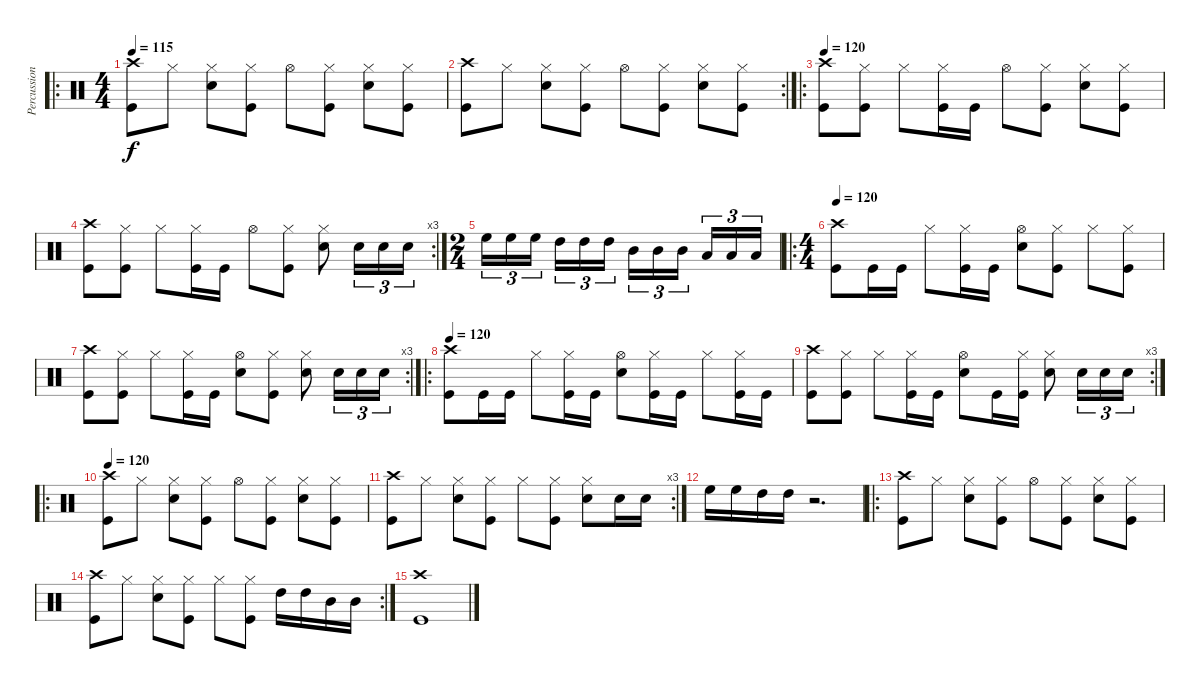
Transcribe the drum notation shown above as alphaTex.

\track ("Percussion" "Percussion") {instrument percussion}
\staff {score}
\articulation defaults
\ro
\ts (4 4)
\tempo 115
\clef neutral
\ks c
("Crash high (hit)" "Kick (hit)").8{dy f} "Hi-Hat (closed)".8 ("Hi-Hat (closed)" "Snare (hit) 2").8 ("Hi-Hat (closed)" "Kick (hit)").8 "Hi-Hat (open)".8 ("Hi-Hat (closed)" "Kick (hit)").8 ("Hi-Hat (closed)" "Snare (hit) 2").8 ("Hi-Hat (closed)" "Kick (hit)").8 |
\rc 2
("Crash high (hit)" "Kick (hit)").8 "Hi-Hat (closed)".8 ("Hi-Hat (closed)" "Snare (hit) 2").8 ("Hi-Hat (closed)" "Kick (hit)").8 "Hi-Hat (open)".8 ("Hi-Hat (closed)" "Kick (hit)").8 ("Hi-Hat (closed)" "Snare (hit) 2").8 ("Hi-Hat (closed)" "Kick (hit)").8 |
\ro
\tempo 120
("Crash high (hit)" "Kick (hit)").8{volume 13} ("Hi-Hat (closed)" "Kick (hit)").8 "Hi-Hat (closed)".8 ("Hi-Hat (closed)" "Kick (hit)").16 "Kick (hit)".16 "Hi-Hat (open)".8 ("Hi-Hat (closed)" "Kick (hit)").8 ("Hi-Hat (closed)" "Snare (hit) 2").8 ("Hi-Hat (closed)" "Kick (hit)").8 |
\rc 3
("Crash high (hit)" "Kick (hit)").8 ("Hi-Hat (closed)" "Kick (hit)").8 "Hi-Hat (closed)".8 ("Hi-Hat (closed)" "Kick (hit)").16 "Kick (hit)".16 "Hi-Hat (open)".8 ("Hi-Hat (closed)" "Kick (hit)").8 ("Hi-Hat (closed)" "Snare (hit) 2").8 "Snare (hit) 2".16{tu (3 2)} "Snare (hit) 2".16{tu (3 2)} "Snare (hit) 2".16{tu (3 2)} |
\ts (2 4)
"High Floor Tom (hit)".16{tu (3 2)} "High Floor Tom (hit)".16{tu (3 2)} "High Floor Tom (hit)".16{tu (3 2)} "High Tom (hit)".16{tu (3 2)} "High Tom (hit)".16{tu (3 2)} "High Tom (hit)".16{tu (3 2)} "Mid Tom (hit)".16{tu (3 2)} "Mid Tom (hit)".16{tu (3 2)} "Mid Tom (hit)".16{tu (3 2)} "Low Tom (hit)".16{tu (3 2)} "Low Tom (hit)".16{tu (3 2)} "Low Tom (hit)".16{tu (3 2)} |
\ro
\ts (4 4)
\tempo 120
("Crash high (hit)" "Kick (hit)").8 "Kick (hit)".16 "Kick (hit)".16 "Hi-Hat (closed)".8 ("Hi-Hat (closed)" "Kick (hit)").16 "Kick (hit)".16 ("Hi-Hat (open)" "Snare (hit) 2").8 ("Hi-Hat (closed)" "Kick (hit)").8 "Hi-Hat (closed)".8 ("Hi-Hat (closed)" "Kick (hit)").8 |
\rc 3
("Crash high (hit)" "Kick (hit)").8 ("Hi-Hat (closed)" "Kick (hit)").8 "Hi-Hat (closed)".8 ("Hi-Hat (closed)" "Kick (hit)").16 "Kick (hit)".16 ("Hi-Hat (open)" "Snare (hit) 2").8 ("Hi-Hat (closed)" "Kick (hit)").8 ("Hi-Hat (closed)" "Snare (hit) 2").8 "Snare (hit) 2".16{tu (3 2)} "Snare (hit) 2".16{tu (3 2)} "Snare (hit) 2".16{tu (3 2)} |
\ro
\tempo 120
("Crash high (hit)" "Kick (hit)").8 "Kick (hit)".16 "Kick (hit)".16 "Hi-Hat (closed)".8 ("Hi-Hat (closed)" "Kick (hit)").16 "Kick (hit)".16 ("Hi-Hat (open)" "Snare (hit) 2").8 ("Hi-Hat (closed)" "Kick (hit)").16 "Kick (hit)".16 "Hi-Hat (closed)".8 ("Hi-Hat (closed)" "Kick (hit)").16 "Kick (hit)".16 |
\rc 3
("Crash high (hit)" "Kick (hit)").8 ("Hi-Hat (closed)" "Kick (hit)").8 "Hi-Hat (closed)".8 ("Hi-Hat (closed)" "Kick (hit)").16 "Kick (hit)".16 ("Hi-Hat (open)" "Snare (hit) 2").8 "Kick (hit)".16 ("Hi-Hat (closed)" "Kick (hit)").16 ("Hi-Hat (closed)" "Snare (hit) 2").8 "Snare (hit) 2".16{tu (3 2)} "Snare (hit) 2".16{tu (3 2)} "Snare (hit) 2".16{tu (3 2)} |
\ro
\tempo 120
("Crash high (hit)" "Kick (hit)").8 "Hi-Hat (closed)".8 ("Hi-Hat (closed)" "Snare (hit) 2").8 ("Hi-Hat (closed)" "Kick (hit)").8 "Hi-Hat (open)".8 ("Hi-Hat (closed)" "Kick (hit)").8 ("Hi-Hat (closed)" "Snare (hit) 2").8 ("Hi-Hat (closed)" "Kick (hit)").8 |
\rc 3
("Crash high (hit)" "Kick (hit)").8 "Hi-Hat (closed)".8 ("Hi-Hat (closed)" "Snare (hit) 2").8 ("Hi-Hat (closed)" "Kick (hit)").8 "Hi-Hat (closed)".8 ("Hi-Hat (closed)" "Kick (hit)").8 ("Hi-Hat (closed)" "Snare (hit) 2").8 "Snare (hit) 2".16 "Snare (hit) 2".16 |
"High Floor Tom (hit)".16 "High Floor Tom (hit)".16 "High Tom (hit)".16 "High Tom (hit)".16 r.2{d} |
\ro
("Crash high (hit)" "Kick (hit)").8 "Hi-Hat (closed)".8 ("Hi-Hat (closed)" "Snare (hit) 2").8 ("Hi-Hat (closed)" "Kick (hit)").8 "Hi-Hat (open)".8 ("Hi-Hat (closed)" "Kick (hit)").8 ("Hi-Hat (closed)" "Snare (hit) 2").8 ("Hi-Hat (closed)" "Kick (hit)").8 |
\rc 2
("Crash high (hit)" "Kick (hit)").8 "Hi-Hat (closed)".8 ("Hi-Hat (closed)" "Snare (hit) 2").8 ("Hi-Hat (closed)" "Kick (hit)").8 "Hi-Hat (closed)".8 ("Hi-Hat (closed)" "Kick (hit)").8 "High Tom (hit)".16 "High Tom (hit)".16 "Mid Tom (hit)".16 "Mid Tom (hit)".16 |
("Crash high (hit)" "Kick (hit)").1
